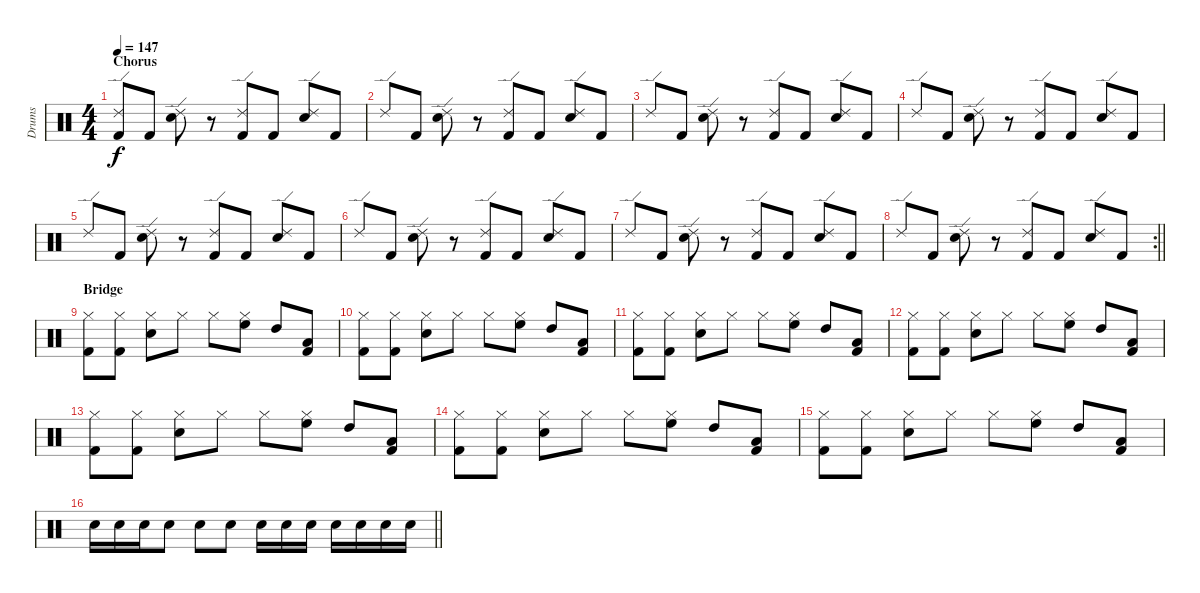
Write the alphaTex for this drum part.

\track ("Drums" "Drums") {instrument percussion}
\staff {score}
\articulation defaults
\ts (4 4)
\section ("" "Chorus")
\tempo 147
\clef neutral
\ks c
("Ride (edge) 2" "Kick (hit) 2").8{dy f} "Kick (hit) 2".8 ("Ride (edge) 2" "Snare (hit) 2").8 r.8 ("Ride (edge) 2" "Kick (hit) 2").8 "Kick (hit) 2".8 ("Ride (edge) 2" "Snare (hit) 2").8 "Kick (hit) 2".8 |
"Ride (edge) 2".8 "Kick (hit) 2".8 ("Ride (edge) 2" "Snare (hit) 2").8 r.8 ("Ride (edge) 2" "Kick (hit) 2").8 "Kick (hit) 2".8 ("Ride (edge) 2" "Snare (hit) 2").8 "Kick (hit) 2".8 |
"Ride (edge) 2".8 "Kick (hit) 2".8 ("Ride (edge) 2" "Snare (hit) 2").8 r.8 ("Ride (edge) 2" "Kick (hit) 2").8 "Kick (hit) 2".8 ("Ride (edge) 2" "Snare (hit) 2").8 "Kick (hit) 2".8 |
"Ride (edge) 2".8 "Kick (hit) 2".8 ("Ride (edge) 2" "Snare (hit) 2").8 r.8 ("Ride (edge) 2" "Kick (hit) 2").8 "Kick (hit) 2".8 ("Ride (edge) 2" "Snare (hit) 2").8 "Kick (hit) 2".8 |
"Ride (edge) 2".8 "Kick (hit) 2".8 ("Ride (edge) 2" "Snare (hit) 2").8 r.8 ("Ride (edge) 2" "Kick (hit) 2").8 "Kick (hit) 2".8 ("Ride (edge) 2" "Snare (hit) 2").8 "Kick (hit) 2".8 |
"Ride (edge) 2".8 "Kick (hit) 2".8 ("Ride (edge) 2" "Snare (hit) 2").8 r.8 ("Ride (edge) 2" "Kick (hit) 2").8 "Kick (hit) 2".8 ("Ride (edge) 2" "Snare (hit) 2").8 "Kick (hit) 2".8 |
"Ride (edge) 2".8 "Kick (hit) 2".8 ("Ride (edge) 2" "Snare (hit) 2").8 r.8 ("Ride (edge) 2" "Kick (hit) 2").8 "Kick (hit) 2".8 ("Ride (edge) 2" "Snare (hit) 2").8 "Kick (hit) 2".8 |
\rc 2
\barLineRight lightlight "Ride (edge) 2".8 "Kick (hit) 2".8
("Ride (edge) 2" "Snare (hit) 2").8 r.8 ("Ride (edge) 2" "Kick (hit) 2").8 "Kick (hit) 2".8 ("Ride (edge) 2" "Snare (hit) 2").8 "Kick (hit) 2".8 |
\section ("" "Bridge")
("Hi-Hat (closed)" "Kick (hit) 2").8 ("Hi-Hat (closed)" "Kick (hit) 2").8 ("Hi-Hat (closed)" "Snare (hit) 2").8 "Hi-Hat (closed)".8 "Hi-Hat (closed)".8 ("Hi-Hat (closed)" "High Floor Tom (hit)").8 "High Tom (hit)".8 ("Low Floor Tom (hit)" "Kick (hit) 2").8 |
("Hi-Hat (closed)" "Kick (hit) 2").8 ("Hi-Hat (closed)" "Kick (hit) 2").8 ("Hi-Hat (closed)" "Snare (hit) 2").8 "Hi-Hat (closed)".8 "Hi-Hat (closed)".8 ("Hi-Hat (closed)" "High Floor Tom (hit)").8 "High Tom (hit)".8 ("Low Floor Tom (hit)" "Kick (hit) 2").8 |
("Hi-Hat (closed)" "Kick (hit) 2").8 ("Hi-Hat (closed)" "Kick (hit) 2").8 ("Hi-Hat (closed)" "Snare (hit) 2").8 "Hi-Hat (closed)".8 "Hi-Hat (closed)".8 ("Hi-Hat (closed)" "High Floor Tom (hit)").8 "High Tom (hit)".8 ("Low Floor Tom (hit)" "Kick (hit) 2").8 |
("Hi-Hat (closed)" "Kick (hit) 2").8 ("Hi-Hat (closed)" "Kick (hit) 2").8 ("Hi-Hat (closed)" "Snare (hit) 2").8 "Hi-Hat (closed)".8 "Hi-Hat (closed)".8 ("Hi-Hat (closed)" "High Floor Tom (hit)").8 "High Tom (hit)".8 ("Low Floor Tom (hit)" "Kick (hit) 2").8 |
("Hi-Hat (closed)" "Kick (hit) 2").8 ("Hi-Hat (closed)" "Kick (hit) 2").8 ("Hi-Hat (closed)" "Snare (hit) 2").8 "Hi-Hat (closed)".8 "Hi-Hat (closed)".8 ("Hi-Hat (closed)" "High Floor Tom (hit)").8 "High Tom (hit)".8 ("Low Floor Tom (hit)" "Kick (hit) 2").8 |
("Hi-Hat (closed)" "Kick (hit) 2").8 ("Hi-Hat (closed)" "Kick (hit) 2").8 ("Hi-Hat (closed)" "Snare (hit) 2").8 "Hi-Hat (closed)".8 "Hi-Hat (closed)".8 ("Hi-Hat (closed)" "High Floor Tom (hit)").8 "High Tom (hit)".8 ("Low Floor Tom (hit)" "Kick (hit) 2").8 |
("Hi-Hat (closed)" "Kick (hit) 2").8 ("Hi-Hat (closed)" "Kick (hit) 2").8 ("Hi-Hat (closed)" "Snare (hit) 2").8 "Hi-Hat (closed)".8 "Hi-Hat (closed)".8 ("Hi-Hat (closed)" "High Floor Tom (hit)").8 "High Tom (hit)".8 ("Low Floor Tom (hit)" "Kick (hit) 2").8 |
\barLineRight lightlight "Snare (hit) 2".16 "Snare (hit) 2".16 "Snare (hit) 2".16 "Snare (hit) 2".8 "Snare (hit) 2".8 "Snare (hit) 2".8 "Snare (hit) 2".16 "Snare (hit) 2".16 "Snare (hit) 2".16 "Snare (hit) 2".16 "Snare (hit) 2".16 "Snare (hit) 2".16 "Snare (hit) 2".16
